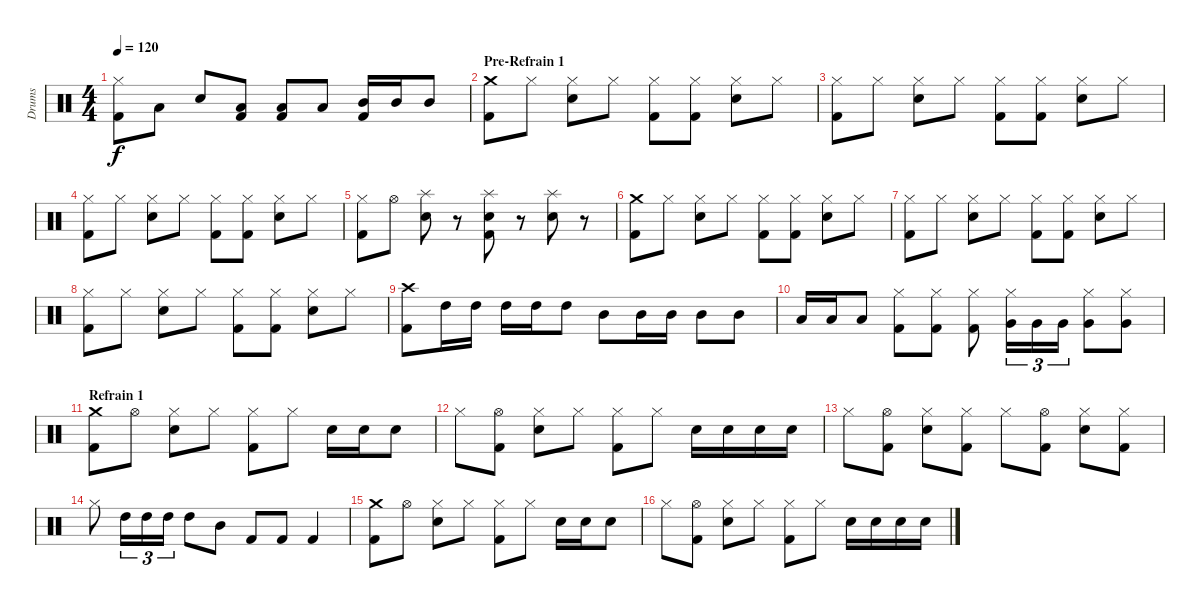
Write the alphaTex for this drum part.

\track ("Drums" "Drums") {instrument percussion}
\staff {score}
\articulation defaults
\ts (4 4)
\tempo 120
\clef neutral
\ks c
("Hi-Hat (closed)" "Kick (hit) 2").8{dy f} "Low Tom (hit)".8 "Snare (hit) 2".8 ("Low Tom (hit)" "Kick (hit) 2").8 ("Low Tom (hit)" "Kick (hit) 2").8 "Low Tom (hit)".8 ("Mid Tom (hit)" "Kick (hit) 2").16 "Mid Tom (hit)".16 "Mid Tom (hit)".8 |
\section ("" "Pre-Refrain 1")
("Crash medium (hit)" "Kick (hit) 2").8 "Hi-Hat (closed)".8 ("Hi-Hat (closed)" "Snare (hit) 2").8 "Hi-Hat (closed)".8 ("Hi-Hat (closed)" "Kick (hit) 2").8 ("Hi-Hat (closed)" "Kick (hit) 2").8 ("Hi-Hat (closed)" "Snare (hit) 2").8 "Hi-Hat (closed)".8 |
("Hi-Hat (closed)" "Kick (hit) 2").8 "Hi-Hat (closed)".8 ("Hi-Hat (closed)" "Snare (hit) 2").8 "Hi-Hat (closed)".8 ("Hi-Hat (closed)" "Kick (hit) 2").8 ("Hi-Hat (closed)" "Kick (hit) 2").8 ("Hi-Hat (closed)" "Snare (hit) 2").8 "Hi-Hat (closed)".8 |
("Hi-Hat (closed)" "Kick (hit) 2").8 "Hi-Hat (closed)".8 ("Hi-Hat (closed)" "Snare (hit) 2").8 "Hi-Hat (closed)".8 ("Hi-Hat (closed)" "Kick (hit) 2").8 ("Hi-Hat (closed)" "Kick (hit) 2").8 ("Hi-Hat (closed)" "Snare (hit) 2").8 "Hi-Hat (closed)".8 |
("Hi-Hat (closed)" "Kick (hit) 2").8 "Hi-Hat (open)".8 ("Splash (hit)" "Snare (hit) 2").8 r.8 ("Splash (hit)" "Snare (hit) 2" "Kick (hit) 2").8 r.8 ("Splash (hit)" "Snare (hit) 2").8 r.8 |
("Crash medium (hit)" "Kick (hit) 2").8 "Hi-Hat (closed)".8 ("Hi-Hat (closed)" "Snare (hit) 2").8 "Hi-Hat (closed)".8 ("Hi-Hat (closed)" "Kick (hit) 2").8 ("Hi-Hat (closed)" "Kick (hit) 2").8 ("Hi-Hat (closed)" "Snare (hit) 2").8 "Hi-Hat (closed)".8 |
("Hi-Hat (closed)" "Kick (hit) 2").8 "Hi-Hat (closed)".8 ("Hi-Hat (closed)" "Snare (hit) 2").8 "Hi-Hat (closed)".8 ("Hi-Hat (closed)" "Kick (hit) 2").8 ("Hi-Hat (closed)" "Kick (hit) 2").8 ("Hi-Hat (closed)" "Snare (hit) 2").8 "Hi-Hat (closed)".8 |
("Hi-Hat (closed)" "Kick (hit) 2").8 "Hi-Hat (closed)".8 ("Hi-Hat (closed)" "Snare (hit) 2").8 "Hi-Hat (closed)".8 ("Hi-Hat (closed)" "Kick (hit) 2").8 ("Hi-Hat (closed)" "Kick (hit) 2").8 ("Hi-Hat (closed)" "Snare (hit) 2").8 "Hi-Hat (closed)".8 |
("Crash high (hit)" "Kick (hit) 2").8 "High Tom (hit)".16 "High Tom (hit)".16 "High Tom (hit)".16 "High Tom (hit)".16 "High Tom (hit)".8 "Mid Tom (hit)".8 "Mid Tom (hit)".16 "Mid Tom (hit)".16 "Mid Tom (hit)".8 "Mid Tom (hit)".8 |
"Low Tom (hit)".16 "Low Tom (hit)".16 "Low Tom (hit)".8 ("Hi-Hat (closed)" "Kick (hit) 2").8 ("Hi-Hat (closed)" "Kick (hit) 2").8 ("Hi-Hat (closed)" "Kick (hit) 2").8 ("Hi-Hat (closed)" "Very Low Tom (hit)").16{tu (3 2)} "Very Low Tom (hit)".16{tu (3 2)} "Very Low Tom (hit)".16{tu (3 2)} ("Hi-Hat (closed)" "Very Low Tom (hit)").8 ("Hi-Hat (closed)" "Very Low Tom (hit)").8 |
\section ("" "Refrain 1")
("Crash medium (hit)" "Kick (hit) 2").8 "Hi-Hat (open)".8 ("Hi-Hat (closed)" "Snare (hit) 2").8 "Hi-Hat (closed)".8 ("Hi-Hat (closed)" "Kick (hit) 2").8 "Hi-Hat (closed)".8 "Snare (hit) 2".16 "Snare (hit) 2".16 "Snare (hit) 2".8 |
"Hi-Hat (closed)".8 ("Hi-Hat (open)" "Kick (hit) 2").8 ("Hi-Hat (closed)" "Snare (hit) 2").8 "Hi-Hat (closed)".8 ("Hi-Hat (closed)" "Kick (hit) 2").8 "Hi-Hat (closed)".8 "Snare (hit) 2".16 "Snare (hit) 2".16 "Snare (hit) 2".16 "Snare (hit) 2".16 |
"Hi-Hat (closed)".8 ("Hi-Hat (open)" "Kick (hit) 2").8 ("Hi-Hat (closed)" "Snare (hit) 2").8 ("Hi-Hat (closed)" "Kick (hit) 2").8 "Hi-Hat (closed)".8 ("Hi-Hat (open)" "Kick (hit) 2").8 ("Hi-Hat (closed)" "Snare (hit) 2").8 ("Hi-Hat (closed)" "Kick (hit) 2").8 |
"Hi-Hat (closed)".8 "High Tom (hit)".16{tu (3 2)} "High Tom (hit)".16{tu (3 2)} "High Tom (hit)".16{tu (3 2)} "High Tom (hit)".8 "Mid Tom (hit)".8 "Kick (hit) 2".8 "Kick (hit) 2".8 "Kick (hit) 2".4 |
("Crash medium (hit)" "Kick (hit) 2").8 "Hi-Hat (open)".8 ("Hi-Hat (closed)" "Snare (hit) 2").8 "Hi-Hat (closed)".8 ("Hi-Hat (closed)" "Kick (hit) 2").8 "Hi-Hat (closed)".8 "Snare (hit) 2".16 "Snare (hit) 2".16 "Snare (hit) 2".8 |
"Hi-Hat (closed)".8 ("Hi-Hat (open)" "Kick (hit) 2").8 ("Hi-Hat (closed)" "Snare (hit) 2").8 "Hi-Hat (closed)".8 ("Hi-Hat (closed)" "Kick (hit) 2").8 "Hi-Hat (closed)".8 "Snare (hit) 2".16 "Snare (hit) 2".16 "Snare (hit) 2".16 "Snare (hit) 2".16
